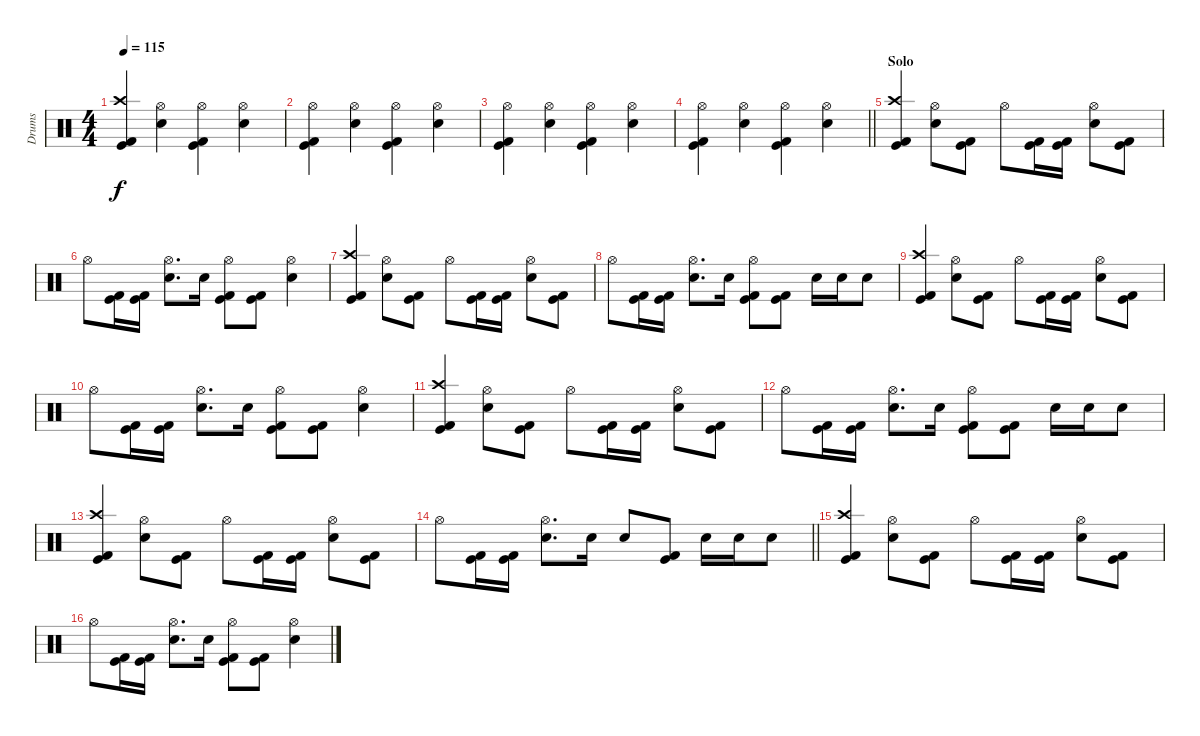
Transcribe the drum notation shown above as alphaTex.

\track ("Drums" "Drums") {instrument percussion}
\staff {score}
\articulation defaults
\ts (4 4)
\tempo 115
\clef neutral
\ks c
("Kick (hit) 2" "Crash high (hit)" "Kick (hit)").4{dy f} ("Electric Snare (hit)" "Hi-Hat (open)").4 ("Kick (hit) 2" "Hi-Hat (open)" "Kick (hit)").4 ("Electric Snare (hit)" "Hi-Hat (open)").4 |
("Kick (hit) 2" "Hi-Hat (open)" "Kick (hit)").4 ("Electric Snare (hit)" "Hi-Hat (open)").4 ("Kick (hit) 2" "Hi-Hat (open)" "Kick (hit)").4 ("Electric Snare (hit)" "Hi-Hat (open)").4 |
("Kick (hit) 2" "Hi-Hat (open)" "Kick (hit)").4 ("Electric Snare (hit)" "Hi-Hat (open)").4 ("Kick (hit) 2" "Hi-Hat (open)" "Kick (hit)").4 ("Electric Snare (hit)" "Hi-Hat (open)").4 |
\barLineRight lightlight
("Kick (hit) 2" "Hi-Hat (open)" "Kick (hit)").4 ("Electric Snare (hit)" "Hi-Hat (open)").4 ("Kick (hit) 2" "Hi-Hat (open)" "Kick (hit)").4 ("Electric Snare (hit)" "Hi-Hat (open)").4 |
\section ("" "Solo")
("Kick (hit) 2" "Crash high (hit)" "Kick (hit)").4 ("Electric Snare (hit)" "Hi-Hat (open)").8 ("Kick (hit) 2" "Kick (hit)").8 "Hi-Hat (open)".8 ("Kick (hit) 2" "Kick (hit)").16 ("Kick (hit) 2" "Kick (hit)").16 ("Electric Snare (hit)" "Hi-Hat (open)").8 ("Kick (hit) 2" "Kick (hit)").8 |
"Hi-Hat (open)".8 ("Kick (hit) 2" "Kick (hit)").16 ("Kick (hit) 2" "Kick (hit)").16 ("Electric Snare (hit)" "Hi-Hat (open)").8{d} "Electric Snare (hit)".16 ("Kick (hit) 2" "Hi-Hat (open)" "Kick (hit)").8 ("Kick (hit) 2" "Kick (hit)").8 ("Electric Snare (hit)" "Hi-Hat (open)").4 |
("Kick (hit) 2" "Crash high (hit)" "Kick (hit)").4 ("Electric Snare (hit)" "Hi-Hat (open)").8 ("Kick (hit) 2" "Kick (hit)").8 "Hi-Hat (open)".8 ("Kick (hit) 2" "Kick (hit)").16 ("Kick (hit) 2" "Kick (hit)").16 ("Electric Snare (hit)" "Hi-Hat (open)").8 ("Kick (hit) 2" "Kick (hit)").8 |
"Hi-Hat (open)".8 ("Kick (hit) 2" "Kick (hit)").16 ("Kick (hit) 2" "Kick (hit)").16 ("Electric Snare (hit)" "Hi-Hat (open)").8{d} "Electric Snare (hit)".16 ("Kick (hit) 2" "Hi-Hat (open)" "Kick (hit)").8 ("Kick (hit) 2" "Kick (hit)").8 "Electric Snare (hit)".16 "Electric Snare (hit)".16 "Electric Snare (hit)".8 |
("Kick (hit) 2" "Crash high (hit)" "Kick (hit)").4 ("Electric Snare (hit)" "Hi-Hat (open)").8 ("Kick (hit) 2" "Kick (hit)").8 "Hi-Hat (open)".8 ("Kick (hit) 2" "Kick (hit)").16 ("Kick (hit) 2" "Kick (hit)").16 ("Electric Snare (hit)" "Hi-Hat (open)").8 ("Kick (hit) 2" "Kick (hit)").8 |
"Hi-Hat (open)".8 ("Kick (hit) 2" "Kick (hit)").16 ("Kick (hit) 2" "Kick (hit)").16 ("Electric Snare (hit)" "Hi-Hat (open)").8{d} "Electric Snare (hit)".16 ("Kick (hit) 2" "Hi-Hat (open)" "Kick (hit)").8 ("Kick (hit) 2" "Kick (hit)").8 ("Electric Snare (hit)" "Hi-Hat (open)").4 |
("Kick (hit) 2" "Crash high (hit)" "Kick (hit)").4 ("Electric Snare (hit)" "Hi-Hat (open)").8 ("Kick (hit) 2" "Kick (hit)").8 "Hi-Hat (open)".8 ("Kick (hit) 2" "Kick (hit)").16 ("Kick (hit) 2" "Kick (hit)").16 ("Electric Snare (hit)" "Hi-Hat (open)").8 ("Kick (hit) 2" "Kick (hit)").8 |
"Hi-Hat (open)".8 ("Kick (hit) 2" "Kick (hit)").16 ("Kick (hit) 2" "Kick (hit)").16 ("Electric Snare (hit)" "Hi-Hat (open)").8{d} "Electric Snare (hit)".16 ("Kick (hit) 2" "Hi-Hat (open)" "Kick (hit)").8 ("Kick (hit) 2" "Kick (hit)").8 "Electric Snare (hit)".16 "Electric Snare (hit)".16 "Electric Snare (hit)".8 |
("Kick (hit) 2" "Crash high (hit)" "Kick (hit)").4 ("Electric Snare (hit)" "Hi-Hat (open)").8 ("Kick (hit) 2" "Kick (hit)").8 "Hi-Hat (open)".8 ("Kick (hit) 2" "Kick (hit)").16 ("Kick (hit) 2" "Kick (hit)").16 ("Electric Snare (hit)" "Hi-Hat (open)").8 ("Kick (hit) 2" "Kick (hit)").8 |
\barLineRight lightlight "Hi-Hat (open)".8
("Kick (hit) 2" "Kick (hit)").16 ("Kick (hit) 2" "Kick (hit)").16 ("Electric Snare (hit)" "Hi-Hat (open)").8{d} "Electric Snare (hit)".16 "Electric Snare (hit)".8 ("Kick (hit) 2" "Kick (hit)").8 "Electric Snare (hit)".16 "Electric Snare (hit)".16 "Electric Snare (hit)".8 |
("Kick (hit) 2" "Crash high (hit)" "Kick (hit)").4 ("Electric Snare (hit)" "Hi-Hat (open)").8 ("Kick (hit) 2" "Kick (hit)").8 "Hi-Hat (open)".8 ("Kick (hit) 2" "Kick (hit)").16 ("Kick (hit) 2" "Kick (hit)").16 ("Electric Snare (hit)" "Hi-Hat (open)").8 ("Kick (hit) 2" "Kick (hit)").8 |
"Hi-Hat (open)".8 ("Kick (hit) 2" "Kick (hit)").16 ("Kick (hit) 2" "Kick (hit)").16 ("Electric Snare (hit)" "Hi-Hat (open)").8{d} "Electric Snare (hit)".16 ("Kick (hit) 2" "Hi-Hat (open)" "Kick (hit)").8 ("Kick (hit) 2" "Kick (hit)").8 ("Electric Snare (hit)" "Hi-Hat (open)").4
